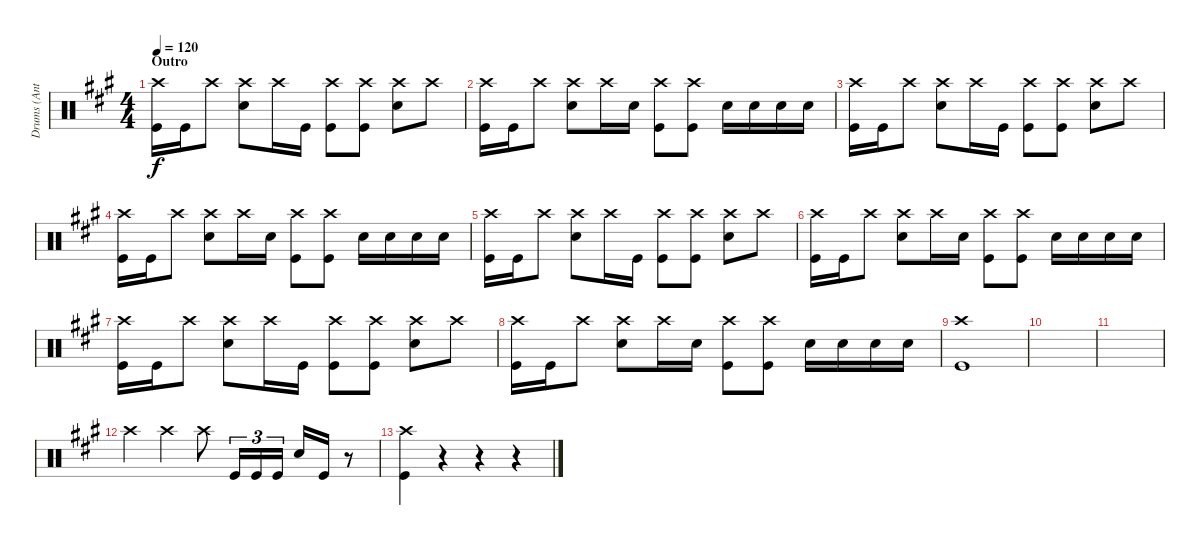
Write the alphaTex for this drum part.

\track ("Drums (Ant)" "Drums (Ant") {instrument percussion}
\staff {score}
\articulation defaults
\ts (4 4)
\section ("" "Outro")
\tempo 120
\clef neutral
\ks a
("Crash high (hit)" "Kick (hit)").16{dy f} "Kick (hit)".16 "Crash high (hit)".8 ("Crash high (hit)" "Snare (hit) 2").8 "Crash high (hit)".16 "Kick (hit)".16 ("Crash high (hit)" "Kick (hit)").8 ("Crash high (hit)" "Kick (hit)").8 ("Crash high (hit)" "Snare (hit) 2").8 "Crash high (hit)".8 |
("Crash high (hit)" "Kick (hit)").16 "Kick (hit)".16 "Crash high (hit)".8 ("Crash high (hit)" "Snare (hit) 2").8 "Crash high (hit)".16 "Snare (hit) 2".16 ("Crash high (hit)" "Kick (hit)").8 ("Crash high (hit)" "Kick (hit)").8 "Snare (hit) 2".16 "Snare (hit) 2".16 "Snare (hit) 2".16 "Snare (hit) 2".16 |
("Crash high (hit)" "Kick (hit)").16 "Kick (hit)".16 "Crash high (hit)".8 ("Crash high (hit)" "Snare (hit) 2").8 "Crash high (hit)".16 "Kick (hit)".16 ("Crash high (hit)" "Kick (hit)").8 ("Crash high (hit)" "Kick (hit)").8 ("Crash high (hit)" "Snare (hit) 2").8 "Crash high (hit)".8 |
("Crash high (hit)" "Kick (hit)").16 "Kick (hit)".16 "Crash high (hit)".8 ("Crash high (hit)" "Snare (hit) 2").8 "Crash high (hit)".16 "Snare (hit) 2".16 ("Crash high (hit)" "Kick (hit)").8 ("Crash high (hit)" "Kick (hit)").8 "Snare (hit) 2".16 "Snare (hit) 2".16 "Snare (hit) 2".16 "Snare (hit) 2".16 |
("Crash high (hit)" "Kick (hit)").16 "Kick (hit)".16 "Crash high (hit)".8 ("Crash high (hit)" "Snare (hit) 2").8 "Crash high (hit)".16 "Kick (hit)".16 ("Crash high (hit)" "Kick (hit)").8 ("Crash high (hit)" "Kick (hit)").8 ("Crash high (hit)" "Snare (hit) 2").8 "Crash high (hit)".8 |
("Crash high (hit)" "Kick (hit)").16 "Kick (hit)".16 "Crash high (hit)".8 ("Crash high (hit)" "Snare (hit) 2").8 "Crash high (hit)".16 "Snare (hit) 2".16 ("Crash high (hit)" "Kick (hit)").8 ("Crash high (hit)" "Kick (hit)").8 "Snare (hit) 2".16 "Snare (hit) 2".16 "Snare (hit) 2".16 "Snare (hit) 2".16 |
("Crash high (hit)" "Kick (hit)").16 "Kick (hit)".16 "Crash high (hit)".8 ("Crash high (hit)" "Snare (hit) 2").8 "Crash high (hit)".16 "Kick (hit)".16 ("Crash high (hit)" "Kick (hit)").8 ("Crash high (hit)" "Kick (hit)").8 ("Crash high (hit)" "Snare (hit) 2").8 "Crash high (hit)".8 |
("Crash high (hit)" "Kick (hit)").16 "Kick (hit)".16 "Crash high (hit)".8 ("Crash high (hit)" "Snare (hit) 2").8 "Crash high (hit)".16 "Snare (hit) 2".16 ("Crash high (hit)" "Kick (hit)").8 ("Crash high (hit)" "Kick (hit)").8 "Snare (hit) 2".16 "Snare (hit) 2".16 "Snare (hit) 2".16 "Snare (hit) 2".16 |
("Crash high (hit)" "Kick (hit)").1 |
|
|
"Crash high (hit)".4 "Crash high (hit)".4 "Crash high (hit)".8 "Kick (hit)".16{tu (3 2)} "Kick (hit)".16{tu (3 2)} "Kick (hit)".16{tu (3 2)} "Snare (hit) 2".16 "Kick (hit)".16 r.8 |
("Crash high (hit)" "Kick (hit)").4 r.4 r.4 r.4
